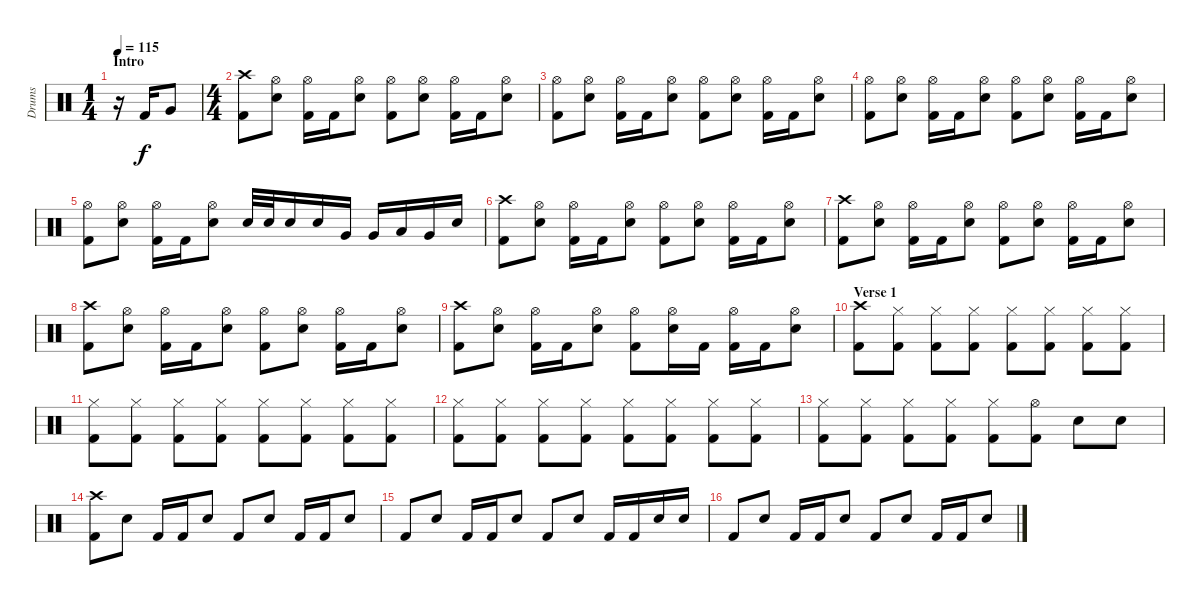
\track ("Drums" "Drums") {instrument percussion}
\staff {score}
\articulation defaults
\ts (1 4)
\section ("" "Intro")
\tempo 115
\clef neutral
\ks c
r.16{dy f} "Kick (hit) 2".16 "Very Low Tom (hit)".8 |
\ts (4 4)
("Crash high (hit)" "Kick (hit) 2").8 ("Hi-Hat (open)" "Electric Snare (hit)").8 ("Hi-Hat (open)" "Kick (hit) 2").16 "Kick (hit) 2".16 ("Hi-Hat (open)" "Electric Snare (hit)").8 ("Hi-Hat (open)" "Kick (hit) 2").8 ("Hi-Hat (open)" "Electric Snare (hit)").8 ("Hi-Hat (open)" "Kick (hit) 2").16 "Kick (hit) 2".16 ("Hi-Hat (open)" "Electric Snare (hit)").8 |
("Hi-Hat (open)" "Kick (hit) 2").8 ("Hi-Hat (open)" "Electric Snare (hit)").8 ("Hi-Hat (open)" "Kick (hit) 2").16 "Kick (hit) 2".16 ("Hi-Hat (open)" "Electric Snare (hit)").8 ("Hi-Hat (open)" "Kick (hit) 2").8 ("Hi-Hat (open)" "Electric Snare (hit)").8 ("Hi-Hat (open)" "Kick (hit) 2").16 "Kick (hit) 2".16 ("Hi-Hat (open)" "Electric Snare (hit)").8 |
("Hi-Hat (open)" "Kick (hit) 2").8 ("Hi-Hat (open)" "Electric Snare (hit)").8 ("Hi-Hat (open)" "Kick (hit) 2").16 "Kick (hit) 2".16 ("Hi-Hat (open)" "Electric Snare (hit)").8 ("Hi-Hat (open)" "Kick (hit) 2").8 ("Hi-Hat (open)" "Electric Snare (hit)").8 ("Hi-Hat (open)" "Kick (hit) 2").16 "Kick (hit) 2".16 ("Hi-Hat (open)" "Electric Snare (hit)").8 |
("Hi-Hat (open)" "Kick (hit) 2").8 ("Hi-Hat (open)" "Electric Snare (hit)").8 ("Hi-Hat (open)" "Kick (hit) 2").16 "Kick (hit) 2".16 ("Hi-Hat (open)" "Electric Snare (hit)").8 "Electric Snare (hit)".32 "Electric Snare (hit)".32 "Electric Snare (hit)".16 "Electric Snare (hit)".16 "Very Low Tom (hit)".16 "Very Low Tom (hit)".16 "Low Tom (hit)".16 "Very Low Tom (hit)".16 "Electric Snare (hit)".16 |
("Crash high (hit)" "Kick (hit) 2").8 ("Hi-Hat (open)" "Electric Snare (hit)").8 ("Hi-Hat (open)" "Kick (hit) 2").16 "Kick (hit) 2".16 ("Hi-Hat (open)" "Electric Snare (hit)").8 ("Hi-Hat (open)" "Kick (hit) 2").8 ("Hi-Hat (open)" "Electric Snare (hit)").8 ("Hi-Hat (open)" "Kick (hit) 2").16 "Kick (hit) 2".16 ("Hi-Hat (open)" "Electric Snare (hit)").8 |
("Crash high (hit)" "Kick (hit) 2").8 ("Hi-Hat (open)" "Electric Snare (hit)").8 ("Hi-Hat (open)" "Kick (hit) 2").16 "Kick (hit) 2".16 ("Hi-Hat (open)" "Electric Snare (hit)").8 ("Hi-Hat (open)" "Kick (hit) 2").8 ("Hi-Hat (open)" "Electric Snare (hit)").8 ("Hi-Hat (open)" "Kick (hit) 2").16 "Kick (hit) 2".16 ("Hi-Hat (open)" "Electric Snare (hit)").8 |
("Crash high (hit)" "Kick (hit) 2").8 ("Hi-Hat (open)" "Electric Snare (hit)").8 ("Hi-Hat (open)" "Kick (hit) 2").16 "Kick (hit) 2".16 ("Hi-Hat (open)" "Electric Snare (hit)").8 ("Hi-Hat (open)" "Kick (hit) 2").8 ("Hi-Hat (open)" "Electric Snare (hit)").8 ("Hi-Hat (open)" "Kick (hit) 2").16 "Kick (hit) 2".16 ("Hi-Hat (open)" "Electric Snare (hit)").8 |
("Crash high (hit)" "Kick (hit) 2").8 ("Hi-Hat (open)" "Electric Snare (hit)").8 ("Hi-Hat (open)" "Kick (hit) 2").16 "Kick (hit) 2".16 ("Hi-Hat (open)" "Electric Snare (hit)").8 ("Hi-Hat (open)" "Kick (hit) 2").8 ("Hi-Hat (open)" "Electric Snare (hit)").16 "Kick (hit) 2".16 ("Hi-Hat (open)" "Kick (hit) 2").16 "Kick (hit) 2".16 ("Hi-Hat (open)" "Electric Snare (hit)").8 |
\section ("" "Verse 1")
("Crash high (hit)" "Kick (hit) 2").8 ("Hi-Hat (closed)" "Kick (hit) 2").8 ("Hi-Hat (closed)" "Kick (hit) 2").8 ("Hi-Hat (closed)" "Kick (hit) 2").8 ("Hi-Hat (closed)" "Kick (hit) 2").8 ("Hi-Hat (closed)" "Kick (hit) 2").8 ("Hi-Hat (closed)" "Kick (hit) 2").8 ("Hi-Hat (closed)" "Kick (hit) 2").8 |
("Hi-Hat (closed)" "Kick (hit) 2").8 ("Hi-Hat (closed)" "Kick (hit) 2").8 ("Hi-Hat (closed)" "Kick (hit) 2").8 ("Hi-Hat (closed)" "Kick (hit) 2").8 ("Hi-Hat (closed)" "Kick (hit) 2").8 ("Hi-Hat (closed)" "Kick (hit) 2").8 ("Hi-Hat (closed)" "Kick (hit) 2").8 ("Hi-Hat (closed)" "Kick (hit) 2").8 |
("Hi-Hat (closed)" "Kick (hit) 2").8 ("Hi-Hat (closed)" "Kick (hit) 2").8 ("Hi-Hat (closed)" "Kick (hit) 2").8 ("Hi-Hat (closed)" "Kick (hit) 2").8 ("Hi-Hat (closed)" "Kick (hit) 2").8 ("Hi-Hat (closed)" "Kick (hit) 2").8 ("Hi-Hat (closed)" "Kick (hit) 2").8 ("Hi-Hat (closed)" "Kick (hit) 2").8 |
("Hi-Hat (closed)" "Kick (hit) 2").8 ("Hi-Hat (closed)" "Kick (hit) 2").8 ("Hi-Hat (closed)" "Kick (hit) 2").8 ("Hi-Hat (closed)" "Kick (hit) 2").8 ("Hi-Hat (closed)" "Kick (hit) 2").8 ("Hi-Hat (open)" "Kick (hit) 2").8 "Electric Snare (hit)".8 "Electric Snare (hit)".8 |
("Crash high (hit)" "Kick (hit) 2").8 "Electric Snare (hit)".8 "Kick (hit) 2".16 "Kick (hit) 2".16 "Electric Snare (hit)".8 "Kick (hit) 2".8 "Electric Snare (hit)".8 "Kick (hit) 2".16 "Kick (hit) 2".16 "Electric Snare (hit)".8 |
"Kick (hit) 2".8 "Electric Snare (hit)".8 "Kick (hit) 2".16 "Kick (hit) 2".16 "Electric Snare (hit)".8 "Kick (hit) 2".8 "Electric Snare (hit)".8 "Kick (hit) 2".16 "Kick (hit) 2".16 "Electric Snare (hit)".16 "Electric Snare (hit)".16 |
"Kick (hit) 2".8 "Electric Snare (hit)".8 "Kick (hit) 2".16 "Kick (hit) 2".16 "Electric Snare (hit)".8 "Kick (hit) 2".8 "Electric Snare (hit)".8 "Kick (hit) 2".16 "Kick (hit) 2".16 "Electric Snare (hit)".8
